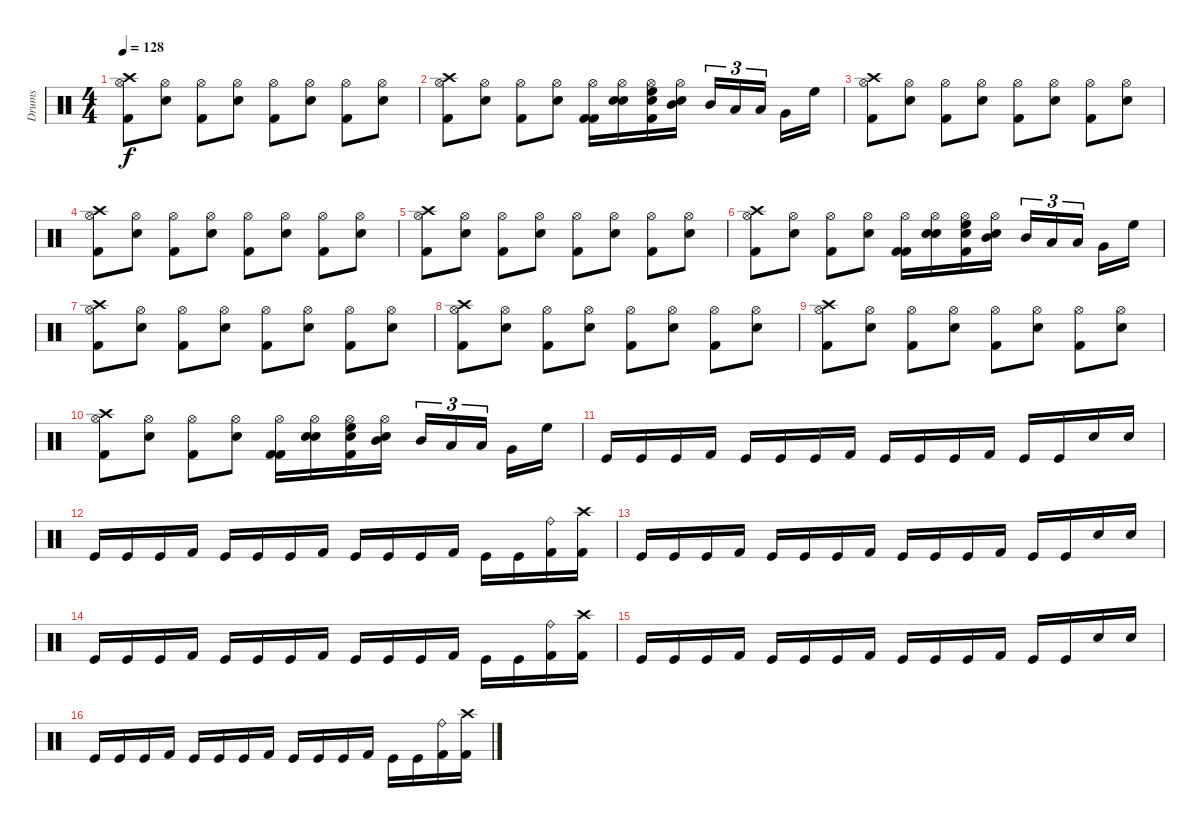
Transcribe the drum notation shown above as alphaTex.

\track ("Drums" "Drums") {instrument percussion}
\staff {score}
\articulation defaults
\ts (4 4)
\tempo 128
\clef neutral
\ks c
("Crash high (hit)" "Hi-Hat (open)" "Kick (hit) 2").8{dy f} ("Hi-Hat (open)" "Snare (hit) 2").8 ("Hi-Hat (open)" "Kick (hit) 2").8 ("Hi-Hat (open)" "Snare (hit) 2").8 ("Hi-Hat (open)" "Kick (hit) 2").8 ("Hi-Hat (open)" "Snare (hit) 2").8 ("Hi-Hat (open)" "Kick (hit) 2").8 ("Hi-Hat (open)" "Snare (hit) 2").8 |
("Crash high (hit)" "Hi-Hat (open)" "Kick (hit) 2").8 ("Hi-Hat (open)" "Snare (hit) 2").8 ("Hi-Hat (open)" "Kick (hit) 2").8 ("Hi-Hat (open)" "Snare (hit) 2").8 ("Hi-Hat (open)" "Kick (hit) 2" "Kick (hit) 2").16 ("Hi-Hat (open)" "Snare (hit) 2" "Electric Snare (hit)").16 ("Hi-Hat (open)" "High Floor Tom (hit)" "Electric Snare (hit)" "Kick (hit) 2").16 ("Hi-Hat (open)" "Snare (hit) 2" "Mid Tom (hit)").16 "Mid Tom (hit)".16{tu (3 2)} "Low Tom (hit)".16{tu (3 2)} "Low Tom (hit)".16{tu (3 2)} "Very Low Tom (hit)".16 "High Floor Tom (hit)".16 |
("Crash high (hit)" "Hi-Hat (open)" "Kick (hit) 2").8 ("Hi-Hat (open)" "Snare (hit) 2").8 ("Hi-Hat (open)" "Kick (hit) 2").8 ("Hi-Hat (open)" "Snare (hit) 2").8 ("Hi-Hat (open)" "Kick (hit) 2").8 ("Hi-Hat (open)" "Snare (hit) 2").8 ("Hi-Hat (open)" "Kick (hit) 2").8 ("Hi-Hat (open)" "Snare (hit) 2").8 |
("Crash high (hit)" "Hi-Hat (open)" "Kick (hit) 2").8 ("Hi-Hat (open)" "Snare (hit) 2").8 ("Hi-Hat (open)" "Kick (hit) 2").8 ("Hi-Hat (open)" "Snare (hit) 2").8 ("Hi-Hat (open)" "Kick (hit) 2").8 ("Hi-Hat (open)" "Snare (hit) 2").8 ("Hi-Hat (open)" "Kick (hit) 2").8 ("Hi-Hat (open)" "Snare (hit) 2").8 |
("Crash high (hit)" "Hi-Hat (open)" "Kick (hit) 2").8 ("Hi-Hat (open)" "Snare (hit) 2").8 ("Hi-Hat (open)" "Kick (hit) 2").8 ("Hi-Hat (open)" "Snare (hit) 2").8 ("Hi-Hat (open)" "Kick (hit) 2").8 ("Hi-Hat (open)" "Snare (hit) 2").8 ("Hi-Hat (open)" "Kick (hit) 2").8 ("Hi-Hat (open)" "Snare (hit) 2").8 |
("Crash high (hit)" "Hi-Hat (open)" "Kick (hit) 2").8 ("Hi-Hat (open)" "Snare (hit) 2").8 ("Hi-Hat (open)" "Kick (hit) 2").8 ("Hi-Hat (open)" "Snare (hit) 2").8 ("Hi-Hat (open)" "Kick (hit) 2" "Kick (hit) 2").16 ("Hi-Hat (open)" "Snare (hit) 2" "Electric Snare (hit)").16 ("Hi-Hat (open)" "High Floor Tom (hit)" "Electric Snare (hit)" "Kick (hit) 2").16 ("Hi-Hat (open)" "Snare (hit) 2" "Mid Tom (hit)").16 "Mid Tom (hit)".16{tu (3 2)} "Low Tom (hit)".16{tu (3 2)} "Low Tom (hit)".16{tu (3 2)} "Very Low Tom (hit)".16 "High Floor Tom (hit)".16 |
("Crash high (hit)" "Hi-Hat (open)" "Kick (hit) 2").8 ("Hi-Hat (open)" "Snare (hit) 2").8 ("Hi-Hat (open)" "Kick (hit) 2").8 ("Hi-Hat (open)" "Snare (hit) 2").8 ("Hi-Hat (open)" "Kick (hit) 2").8 ("Hi-Hat (open)" "Snare (hit) 2").8 ("Hi-Hat (open)" "Kick (hit) 2").8 ("Hi-Hat (open)" "Snare (hit) 2").8 |
("Crash high (hit)" "Hi-Hat (open)" "Kick (hit) 2").8 ("Hi-Hat (open)" "Snare (hit) 2").8 ("Hi-Hat (open)" "Kick (hit) 2").8 ("Hi-Hat (open)" "Snare (hit) 2").8 ("Hi-Hat (open)" "Kick (hit) 2").8 ("Hi-Hat (open)" "Snare (hit) 2").8 ("Hi-Hat (open)" "Kick (hit) 2").8 ("Hi-Hat (open)" "Snare (hit) 2").8 |
("Crash high (hit)" "Hi-Hat (open)" "Kick (hit) 2").8 ("Hi-Hat (open)" "Snare (hit) 2").8 ("Hi-Hat (open)" "Kick (hit) 2").8 ("Hi-Hat (open)" "Snare (hit) 2").8 ("Hi-Hat (open)" "Kick (hit) 2").8 ("Hi-Hat (open)" "Snare (hit) 2").8 ("Hi-Hat (open)" "Kick (hit) 2").8 ("Hi-Hat (open)" "Snare (hit) 2").8 |
("Crash high (hit)" "Hi-Hat (open)" "Kick (hit) 2").8 ("Hi-Hat (open)" "Snare (hit) 2").8 ("Hi-Hat (open)" "Kick (hit) 2").8 ("Hi-Hat (open)" "Snare (hit) 2").8 ("Hi-Hat (open)" "Kick (hit) 2" "Kick (hit) 2").16 ("Hi-Hat (open)" "Snare (hit) 2" "Electric Snare (hit)").16 ("Hi-Hat (open)" "High Floor Tom (hit)" "Electric Snare (hit)" "Kick (hit) 2").16 ("Hi-Hat (open)" "Snare (hit) 2" "Mid Tom (hit)").16 "Mid Tom (hit)".16{tu (3 2)} "Low Tom (hit)".16{tu (3 2)} "Low Tom (hit)".16{tu (3 2)} "Very Low Tom (hit)".16 "High Floor Tom (hit)".16 |
"Kick (hit)".16 "Kick (hit)".16 "Kick (hit)".16 "Kick (hit) 2".16 "Kick (hit)".16 "Kick (hit)".16 "Kick (hit)".16 "Kick (hit) 2".16 "Kick (hit)".16 "Kick (hit)".16 "Kick (hit)".16 "Kick (hit) 2".16 "Kick (hit)".16 "Kick (hit)".16 "Snare (hit) 2".16 "Snare (hit) 2".16 |
"Kick (hit)".16 "Kick (hit)".16 "Kick (hit)".16 "Kick (hit) 2".16 "Kick (hit)".16 "Kick (hit)".16 "Kick (hit)".16 "Kick (hit) 2".16 "Kick (hit)".16 "Kick (hit)".16 "Kick (hit)".16 "Kick (hit) 2".16 "Kick (hit)".16 "Kick (hit)".16 ("Kick (hit) 2" "Ride (bell)").16 ("Kick (hit) 2" "Crash high (hit)").16 |
"Kick (hit)".16 "Kick (hit)".16 "Kick (hit)".16 "Kick (hit) 2".16 "Kick (hit)".16 "Kick (hit)".16 "Kick (hit)".16 "Kick (hit) 2".16 "Kick (hit)".16 "Kick (hit)".16 "Kick (hit)".16 "Kick (hit) 2".16 "Kick (hit)".16 "Kick (hit)".16 "Snare (hit) 2".16 "Snare (hit) 2".16 |
"Kick (hit)".16 "Kick (hit)".16 "Kick (hit)".16 "Kick (hit) 2".16 "Kick (hit)".16 "Kick (hit)".16 "Kick (hit)".16 "Kick (hit) 2".16 "Kick (hit)".16 "Kick (hit)".16 "Kick (hit)".16 "Kick (hit) 2".16 "Kick (hit)".16 "Kick (hit)".16 ("Kick (hit) 2" "Ride (bell)").16 ("Kick (hit) 2" "Crash high (hit)").16 |
"Kick (hit)".16 "Kick (hit)".16 "Kick (hit)".16 "Kick (hit) 2".16 "Kick (hit)".16 "Kick (hit)".16 "Kick (hit)".16 "Kick (hit) 2".16 "Kick (hit)".16 "Kick (hit)".16 "Kick (hit)".16 "Kick (hit) 2".16 "Kick (hit)".16 "Kick (hit)".16 "Snare (hit) 2".16 "Snare (hit) 2".16 |
"Kick (hit)".16 "Kick (hit)".16 "Kick (hit)".16 "Kick (hit) 2".16 "Kick (hit)".16 "Kick (hit)".16 "Kick (hit)".16 "Kick (hit) 2".16 "Kick (hit)".16 "Kick (hit)".16 "Kick (hit)".16 "Kick (hit) 2".16 "Kick (hit)".16 "Kick (hit)".16 ("Kick (hit) 2" "Ride (bell)").16 ("Kick (hit) 2" "Crash high (hit)").16
